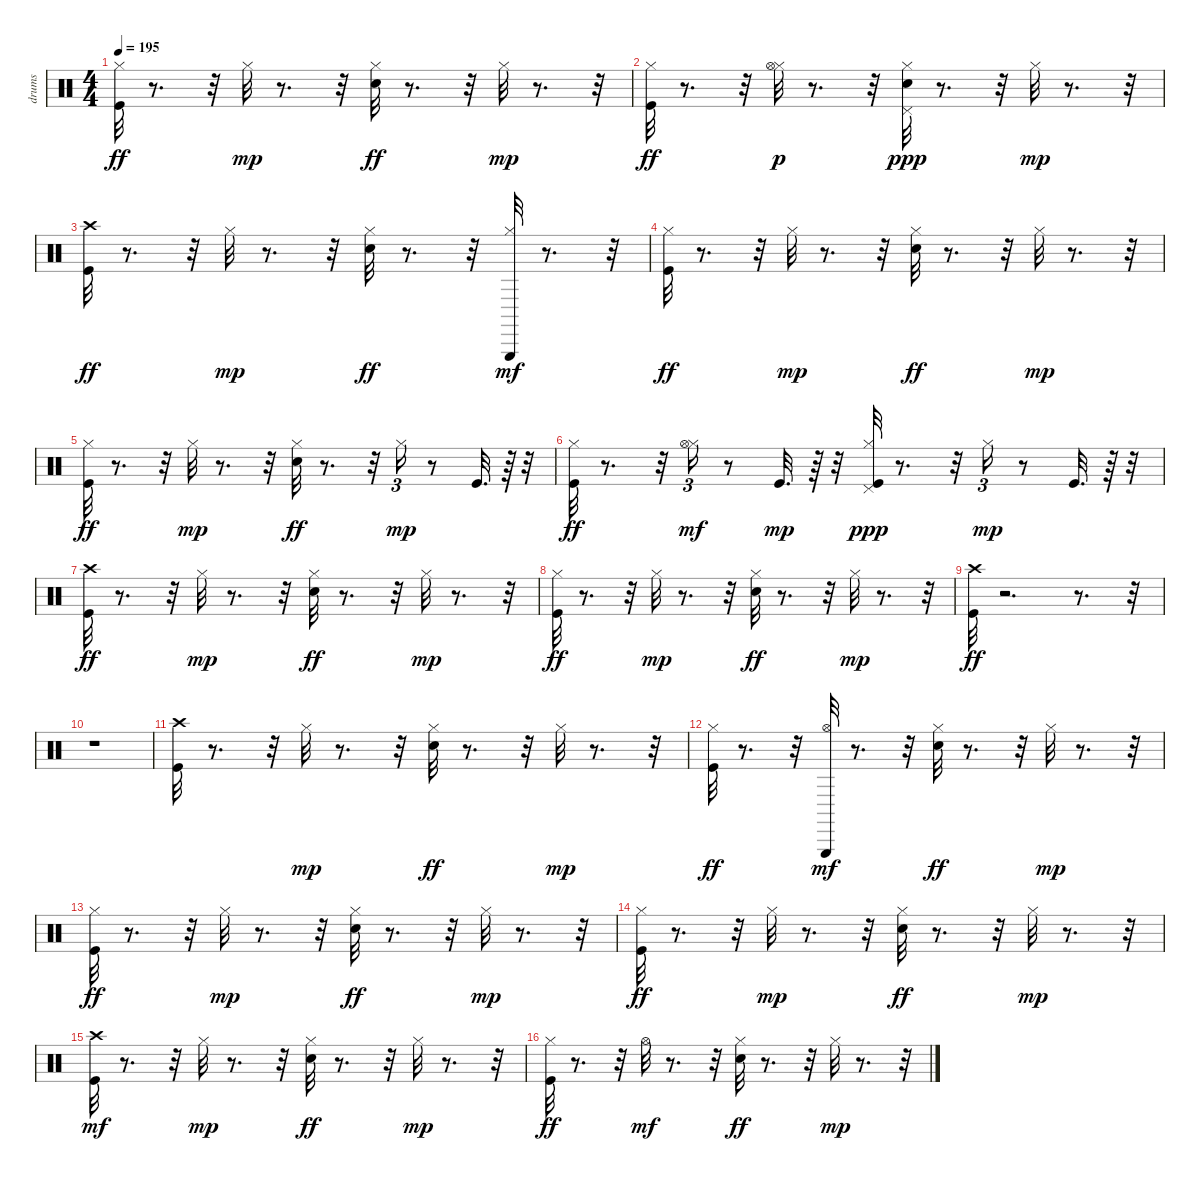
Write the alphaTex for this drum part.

\track ("drums" "drums") {instrument percussion}
\staff {score}
\articulation defaults
\ts (4 4)
\tempo 195
\clef neutral
\ks c
("Kick (hit)" "Hi-Hat (closed)").32{dy ff} r.8{d} r.32 "Hi-Hat (closed)".32{dy mp} r.8{d} r.32 ("Snare (hit) 2" "Hi-Hat (closed)").32{dy ff} r.8{d} r.32 "Hi-Hat (closed)".32{dy mp} r.8{d} r.32 |
("Kick (hit)" "Hi-Hat (closed)").32{dy ff} r.8{d} r.32 ("Hi-Hat (closed)" "Hi-Hat (open)").32{dy p} r.8{d} r.32 ("Hi-Hat (closed)" "Snare (hit) 2" "Pedal Hi-Hat (hit)").32{dy ppp} r.8{d} r.32 "Hi-Hat (closed)".32{dy mp} r.8{d} r.32 |
("Crash high (hit)" "Kick (hit)").32{dy ff} r.8{d} r.32 "Hi-Hat (closed)".32{dy mp} r.8{d} r.32 ("Hi-Hat (closed)" "Snare (hit) 2").32{dy ff} r.8{d} r.32 ("Hi-Hat (closed)" "Triangle (hit)").32{dy mf} r.8{d} r.32 |
("Kick (hit)" "Hi-Hat (closed)").32{dy ff} r.8{d} r.32 "Hi-Hat (closed)".32{dy mp} r.8{d} r.32 ("Hi-Hat (closed)" "Snare (hit) 2").32{dy ff} r.8{d} r.32 "Hi-Hat (closed)".32{dy mp} r.8{d} r.32 |
("Kick (hit)" "Hi-Hat (closed)").32{dy ff} r.8{d} r.32 "Hi-Hat (closed)".32{dy mp} r.8{d} r.32 ("Hi-Hat (closed)" "Snare (hit) 2").32{dy ff} r.8{d} r.32 "Hi-Hat (closed)".16{tu (3 2) dy mp} r.8 "Kick (hit)".32{d} r.64 r.32 |
("Kick (hit)" "Hi-Hat (closed)").32{dy ff} r.8{d} r.32 ("Hi-Hat (closed)" "Hi-Hat (open)").16{tu (3 2) dy mf} r.8 "Kick (hit)".32{d dy mp} r.64 r.32 ("Hi-Hat (closed)" "Kick (hit)" "Pedal Hi-Hat (hit)").32{dy ppp} r.8{d} r.32 "Hi-Hat (closed)".16{tu (3 2) dy mp} r.8 "Kick (hit)".32{d} r.64 r.32 |
("Crash high (hit)" "Kick (hit)").32{dy ff} r.8{d} r.32 "Hi-Hat (closed)".32{dy mp} r.8{d} r.32 ("Snare (hit) 2" "Hi-Hat (closed)").32{dy ff} r.8{d} r.32 "Hi-Hat (closed)".32{dy mp} r.8{d} r.32 |
("Hi-Hat (closed)" "Kick (hit)").32{dy ff} r.8{d} r.32 "Hi-Hat (closed)".32{dy mp} r.8{d} r.32 ("Hi-Hat (closed)" "Snare (hit) 2").32{dy ff} r.8{d} r.32 "Hi-Hat (closed)".32{dy mp} r.8{d} r.32 |
("Kick (hit)" "Crash high (hit)").32{dy ff} r.2{d} r.8{d} r.32 |
r.1 |
("Kick (hit)" "Crash high (hit)").32 r.8{d} r.32 "Hi-Hat (closed)".32{dy mp} r.8{d} r.32 ("Snare (hit) 2" "Hi-Hat (closed)").32{dy ff} r.8{d} r.32 "Hi-Hat (closed)".32{dy mp} r.8{d} r.32 |
("Kick (hit)" "Hi-Hat (closed)").32{dy ff} r.8{d} r.32 ("Hi-Hat (open)" "Triangle (hit)").32{dy mf} r.8{d} r.32 ("Snare (hit) 2" "Hi-Hat (closed)").32{dy ff} r.8{d} r.32 "Hi-Hat (closed)".32{dy mp} r.8{d} r.32 |
("Hi-Hat (closed)" "Kick (hit)").32{dy ff} r.8{d} r.32 "Hi-Hat (closed)".32{dy mp} r.8{d} r.32 ("Snare (hit) 2" "Hi-Hat (closed)").32{dy ff} r.8{d} r.32 "Hi-Hat (closed)".32{dy mp} r.8{d} r.32 |
("Hi-Hat (closed)" "Kick (hit)").32{dy ff} r.8{d} r.32 "Hi-Hat (closed)".32{dy mp} r.8{d} r.32 ("Hi-Hat (closed)" "Snare (hit) 2").32{dy ff} r.8{d} r.32 "Hi-Hat (closed)".32{dy mp} r.8{d} r.32 |
("Kick (hit)" "Crash high (hit)").32{dy mf} r.8{d} r.32 "Hi-Hat (closed)".32{dy mp} r.8{d} r.32 ("Snare (hit) 2" "Hi-Hat (closed)").32{dy ff} r.8{d} r.32 "Hi-Hat (closed)".32{dy mp} r.8{d} r.32 |
("Kick (hit)" "Hi-Hat (closed)").32{dy ff} r.8{d} r.32 "Hi-Hat (open)".32{dy mf} r.8{d} r.32 ("Snare (hit) 2" "Hi-Hat (closed)").32{dy ff} r.8{d} r.32 "Hi-Hat (closed)".32{dy mp} r.8{d} r.32
